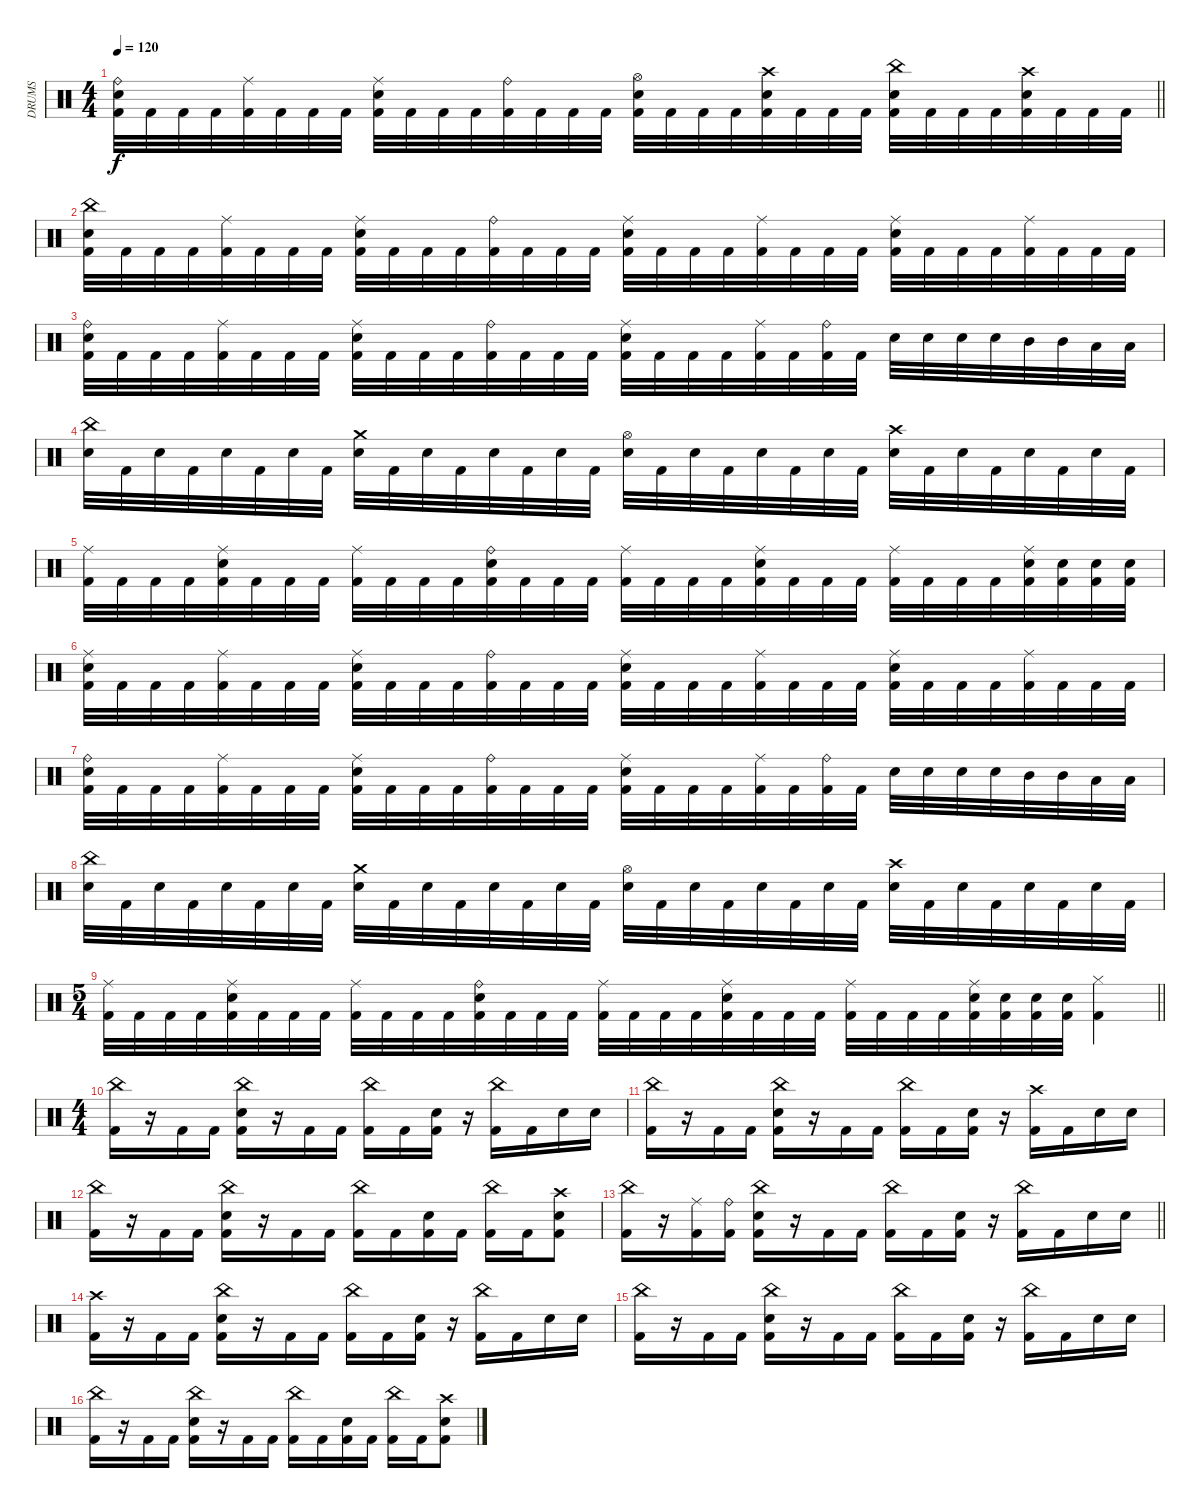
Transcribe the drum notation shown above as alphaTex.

\track ("DRUMS" "DRUMS") {instrument percussion}
\staff {score}
\articulation defaults
\ts (4 4)
\tempo 120
\clef neutral
\barLineRight lightlight
\ks c
("Ride (bell)" "Electric Snare (hit)" "Kick (hit) 2").32{dy f} "Kick (hit) 2".32 "Kick (hit) 2".32 "Kick (hit) 2".32 ("Ride (middle)" "Kick (hit) 2").32 "Kick (hit) 2".32 "Kick (hit) 2".32 "Kick (hit) 2".32 ("Ride (middle)" "Electric Snare (hit)" "Kick (hit) 2").32 "Kick (hit) 2".32 "Kick (hit) 2".32 "Kick (hit) 2".32 ("Ride (bell)" "Kick (hit) 2").32 "Kick (hit) 2".32 "Kick (hit) 2".32 "Kick (hit) 2".32 ("Hi-Hat (open)" "Electric Snare (hit)" "Kick (hit) 2").32 "Kick (hit) 2".32 "Kick (hit) 2".32 "Kick (hit) 2".32 ("Crash high (hit)" "Electric Snare (hit)" "Kick (hit) 2").32 "Kick (hit) 2".32 "Kick (hit) 2".32 "Kick (hit) 2".32 ("China (hit)" "Electric Snare (hit)" "Kick (hit) 2").32 "Kick (hit) 2".32 "Kick (hit) 2".32 "Kick (hit) 2".32 ("Crash high (hit)" "Electric Snare (hit)" "Kick (hit) 2").32 "Kick (hit) 2".32 "Kick (hit) 2".32 "Kick (hit) 2".32 |
("China (hit)" "Electric Snare (hit)" "Kick (hit) 2").32 "Kick (hit) 2".32 "Kick (hit) 2".32 "Kick (hit) 2".32 ("Ride (middle)" "Kick (hit) 2").32 "Kick (hit) 2".32 "Kick (hit) 2".32 "Kick (hit) 2".32 ("Ride (middle)" "Electric Snare (hit)" "Kick (hit) 2").32 "Kick (hit) 2".32 "Kick (hit) 2".32 "Kick (hit) 2".32 ("Ride (bell)" "Kick (hit) 2").32 "Kick (hit) 2".32 "Kick (hit) 2".32 "Kick (hit) 2".32 ("Ride (middle)" "Electric Snare (hit)" "Kick (hit) 2").32 "Kick (hit) 2".32 "Kick (hit) 2".32 "Kick (hit) 2".32 ("Ride (middle)" "Kick (hit) 2").32 "Kick (hit) 2".32 "Kick (hit) 2".32 "Kick (hit) 2".32 ("Ride (middle)" "Electric Snare (hit)" "Kick (hit) 2").32 "Kick (hit) 2".32 "Kick (hit) 2".32 "Kick (hit) 2".32 ("Ride (middle)" "Kick (hit) 2").32 "Kick (hit) 2".32 "Kick (hit) 2".32 "Kick (hit) 2".32 |
("Ride (bell)" "Electric Snare (hit)" "Kick (hit) 2").32 "Kick (hit) 2".32 "Kick (hit) 2".32 "Kick (hit) 2".32 ("Ride (middle)" "Kick (hit) 2").32 "Kick (hit) 2".32 "Kick (hit) 2".32 "Kick (hit) 2".32 ("Ride (middle)" "Electric Snare (hit)" "Kick (hit) 2").32 "Kick (hit) 2".32 "Kick (hit) 2".32 "Kick (hit) 2".32 ("Ride (bell)" "Kick (hit) 2").32 "Kick (hit) 2".32 "Kick (hit) 2".32 "Kick (hit) 2".32 ("Ride (middle)" "Electric Snare (hit)" "Kick (hit) 2").32 "Kick (hit) 2".32 "Kick (hit) 2".32 "Kick (hit) 2".32 ("Ride (middle)" "Kick (hit) 2").32 "Kick (hit) 2".32 ("Ride (bell)" "Kick (hit) 2").32 "Kick (hit) 2".32 "Electric Snare (hit)".32 "Electric Snare (hit)".32 "Electric Snare (hit)".32 "Electric Snare (hit)".32 "Mid Tom (hit)".32 "Mid Tom (hit)".32 "Low Tom (hit)".32 "Low Tom (hit)".32 |
("China (hit)" "Electric Snare (hit)").32 "Kick (hit) 2".32 "Electric Snare (hit)".32 "Kick (hit) 2".32 "Electric Snare (hit)".32 "Kick (hit) 2".32 "Electric Snare (hit)".32 "Kick (hit) 2".32 ("Crash medium (hit)" "Electric Snare (hit)").32 "Kick (hit) 2".32 "Electric Snare (hit)".32 "Kick (hit) 2".32 "Electric Snare (hit)".32 "Kick (hit) 2".32 "Electric Snare (hit)".32 "Kick (hit) 2".32 ("Hi-Hat (open)" "Electric Snare (hit)").32 "Kick (hit) 2".32 "Electric Snare (hit)".32 "Kick (hit) 2".32 "Electric Snare (hit)".32 "Kick (hit) 2".32 "Electric Snare (hit)".32 "Kick (hit) 2".32 ("Crash high (hit)" "Electric Snare (hit)").32 "Kick (hit) 2".32 "Electric Snare (hit)".32 "Kick (hit) 2".32 "Electric Snare (hit)".32 "Kick (hit) 2".32 "Electric Snare (hit)".32 "Kick (hit) 2".32 |
("Ride (middle)" "Kick (hit) 2").32 "Kick (hit) 2".32 "Kick (hit) 2".32 "Kick (hit) 2".32 ("Ride (middle)" "Electric Snare (hit)" "Kick (hit) 2").32 "Kick (hit) 2".32 "Kick (hit) 2".32 "Kick (hit) 2".32 ("Ride (middle)" "Kick (hit) 2").32 "Kick (hit) 2".32 "Kick (hit) 2".32 "Kick (hit) 2".32 ("Ride (bell)" "Electric Snare (hit)" "Kick (hit) 2").32 "Kick (hit) 2".32 "Kick (hit) 2".32 "Kick (hit) 2".32 ("Ride (middle)" "Kick (hit) 2").32 "Kick (hit) 2".32 "Kick (hit) 2".32 "Kick (hit) 2".32 ("Ride (middle)" "Electric Snare (hit)" "Kick (hit) 2").32 "Kick (hit) 2".32 "Kick (hit) 2".32 "Kick (hit) 2".32 ("Ride (middle)" "Kick (hit) 2").32 "Kick (hit) 2".32 "Kick (hit) 2".32 "Kick (hit) 2".32 ("Ride (middle)" "Electric Snare (hit)" "Kick (hit) 2").32 ("Electric Snare (hit)" "Kick (hit) 2").32 ("Electric Snare (hit)" "Kick (hit) 2").32 ("Electric Snare (hit)" "Kick (hit) 2").32 |
("Ride (middle)" "Electric Snare (hit)" "Kick (hit) 2").32 "Kick (hit) 2".32 "Kick (hit) 2".32 "Kick (hit) 2".32 ("Ride (middle)" "Kick (hit) 2").32 "Kick (hit) 2".32 "Kick (hit) 2".32 "Kick (hit) 2".32 ("Ride (middle)" "Electric Snare (hit)" "Kick (hit) 2").32 "Kick (hit) 2".32 "Kick (hit) 2".32 "Kick (hit) 2".32 ("Ride (bell)" "Kick (hit) 2").32 "Kick (hit) 2".32 "Kick (hit) 2".32 "Kick (hit) 2".32 ("Ride (middle)" "Electric Snare (hit)" "Kick (hit) 2").32 "Kick (hit) 2".32 "Kick (hit) 2".32 "Kick (hit) 2".32 ("Ride (middle)" "Kick (hit) 2").32 "Kick (hit) 2".32 "Kick (hit) 2".32 "Kick (hit) 2".32 ("Ride (middle)" "Electric Snare (hit)" "Kick (hit) 2").32 "Kick (hit) 2".32 "Kick (hit) 2".32 "Kick (hit) 2".32 ("Ride (middle)" "Kick (hit) 2").32 "Kick (hit) 2".32 "Kick (hit) 2".32 "Kick (hit) 2".32 |
("Ride (bell)" "Electric Snare (hit)" "Kick (hit) 2").32 "Kick (hit) 2".32 "Kick (hit) 2".32 "Kick (hit) 2".32 ("Ride (middle)" "Kick (hit) 2").32 "Kick (hit) 2".32 "Kick (hit) 2".32 "Kick (hit) 2".32 ("Ride (middle)" "Electric Snare (hit)" "Kick (hit) 2").32 "Kick (hit) 2".32 "Kick (hit) 2".32 "Kick (hit) 2".32 ("Ride (bell)" "Kick (hit) 2").32 "Kick (hit) 2".32 "Kick (hit) 2".32 "Kick (hit) 2".32 ("Ride (middle)" "Electric Snare (hit)" "Kick (hit) 2").32 "Kick (hit) 2".32 "Kick (hit) 2".32 "Kick (hit) 2".32 ("Ride (middle)" "Kick (hit) 2").32 "Kick (hit) 2".32 ("Ride (bell)" "Kick (hit) 2").32 "Kick (hit) 2".32 "Electric Snare (hit)".32 "Electric Snare (hit)".32 "Electric Snare (hit)".32 "Electric Snare (hit)".32 "Mid Tom (hit)".32 "Mid Tom (hit)".32 "Low Tom (hit)".32 "Low Tom (hit)".32 |
("China (hit)" "Electric Snare (hit)").32 "Kick (hit) 2".32 "Electric Snare (hit)".32 "Kick (hit) 2".32 "Electric Snare (hit)".32 "Kick (hit) 2".32 "Electric Snare (hit)".32 "Kick (hit) 2".32 ("Crash medium (hit)" "Electric Snare (hit)").32 "Kick (hit) 2".32 "Electric Snare (hit)".32 "Kick (hit) 2".32 "Electric Snare (hit)".32 "Kick (hit) 2".32 "Electric Snare (hit)".32 "Kick (hit) 2".32 ("Hi-Hat (open)" "Electric Snare (hit)").32 "Kick (hit) 2".32 "Electric Snare (hit)".32 "Kick (hit) 2".32 "Electric Snare (hit)".32 "Kick (hit) 2".32 "Electric Snare (hit)".32 "Kick (hit) 2".32 ("Crash high (hit)" "Electric Snare (hit)").32 "Kick (hit) 2".32 "Electric Snare (hit)".32 "Kick (hit) 2".32 "Electric Snare (hit)".32 "Kick (hit) 2".32 "Electric Snare (hit)".32 "Kick (hit) 2".32 |
\ts (5 4)
\barLineRight lightlight
("Ride (middle)" "Kick (hit) 2").32 "Kick (hit) 2".32 "Kick (hit) 2".32 "Kick (hit) 2".32 ("Ride (middle)" "Electric Snare (hit)" "Kick (hit) 2").32 "Kick (hit) 2".32 "Kick (hit) 2".32 "Kick (hit) 2".32 ("Ride (middle)" "Kick (hit) 2").32 "Kick (hit) 2".32 "Kick (hit) 2".32 "Kick (hit) 2".32 ("Ride (bell)" "Electric Snare (hit)" "Kick (hit) 2").32 "Kick (hit) 2".32 "Kick (hit) 2".32 "Kick (hit) 2".32 ("Ride (middle)" "Kick (hit) 2").32 "Kick (hit) 2".32 "Kick (hit) 2".32 "Kick (hit) 2".32 ("Ride (middle)" "Electric Snare (hit)" "Kick (hit) 2").32 "Kick (hit) 2".32 "Kick (hit) 2".32 "Kick (hit) 2".32 ("Ride (middle)" "Kick (hit) 2").32 "Kick (hit) 2".32 "Kick (hit) 2".32 "Kick (hit) 2".32 ("Ride (middle)" "Electric Snare (hit)" "Kick (hit) 2").32 ("Electric Snare (hit)" "Kick (hit) 2").32 ("Electric Snare (hit)" "Kick (hit) 2").32 ("Electric Snare (hit)" "Kick (hit) 2").32 ("Hi-Hat (closed)" "Kick (hit) 2").4 |
\ts (4 4)
("China (hit)" "Kick (hit) 2").16 r.16 "Kick (hit) 2".16 "Kick (hit) 2".16 ("China (hit)" "Electric Snare (hit)" "Kick (hit) 2").16 r.16 "Kick (hit) 2".16 "Kick (hit) 2".16 ("China (hit)" "Kick (hit) 2").16 "Kick (hit) 2".16 ("Electric Snare (hit)" "Kick (hit) 2").16 r.16 ("China (hit)" "Kick (hit) 2").16 "Kick (hit) 2".16 "Electric Snare (hit)".16 "Electric Snare (hit)".16 |
("China (hit)" "Kick (hit) 2").16 r.16 "Kick (hit) 2".16 "Kick (hit) 2".16 ("China (hit)" "Electric Snare (hit)" "Kick (hit) 2").16 r.16 "Kick (hit) 2".16 "Kick (hit) 2".16 ("China (hit)" "Kick (hit) 2").16 "Kick (hit) 2".16 ("Electric Snare (hit)" "Kick (hit) 2").16 r.16 ("Crash high (hit)" "Kick (hit) 2").16 "Kick (hit) 2".16 "Electric Snare (hit)".16 "Electric Snare (hit)".16 |
("China (hit)" "Kick (hit) 2").16 r.16 "Kick (hit) 2".16 "Kick (hit) 2".16 ("China (hit)" "Electric Snare (hit)" "Kick (hit) 2").16 r.16 "Kick (hit) 2".16 "Kick (hit) 2".16 ("China (hit)" "Kick (hit) 2").16 "Kick (hit) 2".16 ("Electric Snare (hit)" "Kick (hit) 2").16 "Kick (hit) 2".16 ("China (hit)" "Kick (hit) 2").16 "Kick (hit) 2".16 ("Crash high (hit)" "Electric Snare (hit)" "Kick (hit) 2").8 |
\barLineRight lightlight
("China (hit)" "Kick (hit) 2").16 r.16 ("Ride (middle)" "Kick (hit) 2").16 ("Ride (bell)" "Kick (hit) 2").16 ("China (hit)" "Electric Snare (hit)" "Kick (hit) 2").16 r.16 "Kick (hit) 2".16 "Kick (hit) 2".16 ("China (hit)" "Kick (hit) 2").16 "Kick (hit) 2".16 ("Electric Snare (hit)" "Kick (hit) 2").16 r.16 ("China (hit)" "Kick (hit) 2").16 "Kick (hit) 2".16 "Electric Snare (hit)".16 "Electric Snare (hit)".16 |
("Crash high (hit)" "Kick (hit) 2").16 r.16 "Kick (hit) 2".16 "Kick (hit) 2".16 ("China (hit)" "Electric Snare (hit)" "Kick (hit) 2").16 r.16 "Kick (hit) 2".16 "Kick (hit) 2".16 ("China (hit)" "Kick (hit) 2").16 "Kick (hit) 2".16 ("Electric Snare (hit)" "Kick (hit) 2").16 r.16 ("China (hit)" "Kick (hit) 2").16 "Kick (hit) 2".16 "Electric Snare (hit)".16 "Electric Snare (hit)".16 |
("China (hit)" "Kick (hit) 2").16 r.16 "Kick (hit) 2".16 "Kick (hit) 2".16 ("China (hit)" "Electric Snare (hit)" "Kick (hit) 2").16 r.16 "Kick (hit) 2".16 "Kick (hit) 2".16 ("China (hit)" "Kick (hit) 2").16 "Kick (hit) 2".16 ("Electric Snare (hit)" "Kick (hit) 2").16 r.16 ("China (hit)" "Kick (hit) 2").16 "Kick (hit) 2".16 "Electric Snare (hit)".16 "Electric Snare (hit)".16 |
("China (hit)" "Kick (hit) 2").16 r.16 "Kick (hit) 2".16 "Kick (hit) 2".16 ("China (hit)" "Electric Snare (hit)" "Kick (hit) 2").16 r.16 "Kick (hit) 2".16 "Kick (hit) 2".16 ("China (hit)" "Kick (hit) 2").16 "Kick (hit) 2".16 ("Electric Snare (hit)" "Kick (hit) 2").16 "Kick (hit) 2".16 ("China (hit)" "Kick (hit) 2").16 "Kick (hit) 2".16 ("Crash high (hit)" "Electric Snare (hit)" "Kick (hit) 2").8
